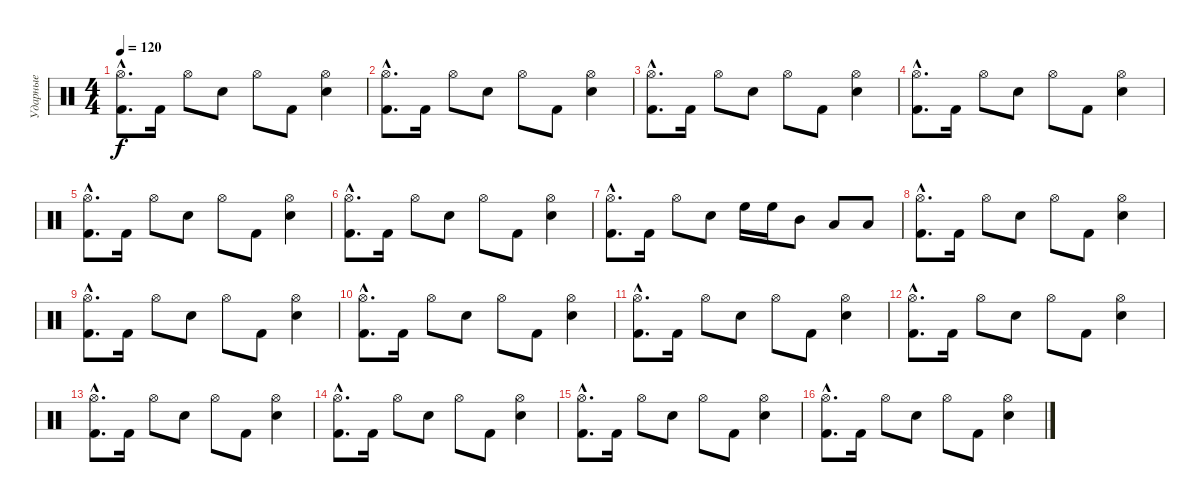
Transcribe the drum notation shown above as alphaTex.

\track ("Ударные" "Ударные") {instrument percussion}
\staff {score}
\articulation defaults
\ts (4 4)
\tempo 120
\clef neutral
\ks c
("Hi-Hat (open)"{hac} "Kick (hit) 2"{hac}).8{d dy f} "Kick (hit) 2".16 "Hi-Hat (open)".8 "Snare (hit) 2".8 "Hi-Hat (open)".8 "Kick (hit) 2".8 ("Hi-Hat (open)" "Snare (hit) 2").4 |
("Hi-Hat (open)"{hac} "Kick (hit) 2"{hac}).8{d} "Kick (hit) 2".16 "Hi-Hat (open)".8 "Snare (hit) 2".8 "Hi-Hat (open)".8 "Kick (hit) 2".8 ("Hi-Hat (open)" "Snare (hit) 2").4 |
("Hi-Hat (open)"{hac} "Kick (hit) 2"{hac}).8{d} "Kick (hit) 2".16 "Hi-Hat (open)".8 "Snare (hit) 2".8 "Hi-Hat (open)".8 "Kick (hit) 2".8 ("Hi-Hat (open)" "Snare (hit) 2").4 |
("Hi-Hat (open)"{hac} "Kick (hit) 2"{hac}).8{d} "Kick (hit) 2".16 "Hi-Hat (open)".8 "Snare (hit) 2".8 "Hi-Hat (open)".8 "Kick (hit) 2".8 ("Hi-Hat (open)" "Snare (hit) 2").4 |
("Hi-Hat (open)"{hac} "Kick (hit) 2"{hac}).8{d} "Kick (hit) 2".16 "Hi-Hat (open)".8 "Snare (hit) 2".8 "Hi-Hat (open)".8 "Kick (hit) 2".8 ("Hi-Hat (open)" "Snare (hit) 2").4 |
("Hi-Hat (open)"{hac} "Kick (hit) 2"{hac}).8{d} "Kick (hit) 2".16 "Hi-Hat (open)".8 "Snare (hit) 2".8 "Hi-Hat (open)".8 "Kick (hit) 2".8 ("Hi-Hat (open)" "Snare (hit) 2").4 |
("Hi-Hat (open)"{hac} "Kick (hit) 2"{hac}).8{d} "Kick (hit) 2".16 "Hi-Hat (open)".8 "Snare (hit) 2".8 "High Floor Tom (hit)".16 "High Floor Tom (hit)".16 "Mid Tom (hit)".8 "Low Tom (hit)".8 "Low Floor Tom (hit)".8 |
("Hi-Hat (open)"{hac} "Kick (hit) 2"{hac}).8{d} "Kick (hit) 2".16 "Hi-Hat (open)".8 "Snare (hit) 2".8 "Hi-Hat (open)".8 "Kick (hit) 2".8 ("Hi-Hat (open)" "Snare (hit) 2").4 |
("Hi-Hat (open)"{hac} "Kick (hit) 2"{hac}).8{d} "Kick (hit) 2".16 "Hi-Hat (open)".8 "Snare (hit) 2".8 "Hi-Hat (open)".8 "Kick (hit) 2".8 ("Hi-Hat (open)" "Snare (hit) 2").4 |
("Hi-Hat (open)"{hac} "Kick (hit) 2"{hac}).8{d} "Kick (hit) 2".16 "Hi-Hat (open)".8 "Snare (hit) 2".8 "Hi-Hat (open)".8 "Kick (hit) 2".8 ("Hi-Hat (open)" "Snare (hit) 2").4 |
("Hi-Hat (open)"{hac} "Kick (hit) 2"{hac}).8{d} "Kick (hit) 2".16 "Hi-Hat (open)".8 "Snare (hit) 2".8 "Hi-Hat (open)".8 "Kick (hit) 2".8 ("Hi-Hat (open)" "Snare (hit) 2").4 |
("Hi-Hat (open)"{hac} "Kick (hit) 2"{hac}).8{d} "Kick (hit) 2".16 "Hi-Hat (open)".8 "Snare (hit) 2".8 "Hi-Hat (open)".8 "Kick (hit) 2".8 ("Hi-Hat (open)" "Snare (hit) 2").4 |
("Hi-Hat (open)"{hac} "Kick (hit) 2"{hac}).8{d} "Kick (hit) 2".16 "Hi-Hat (open)".8 "Snare (hit) 2".8 "Hi-Hat (open)".8 "Kick (hit) 2".8 ("Hi-Hat (open)" "Snare (hit) 2").4 |
("Hi-Hat (open)"{hac} "Kick (hit) 2"{hac}).8{d} "Kick (hit) 2".16 "Hi-Hat (open)".8 "Snare (hit) 2".8 "Hi-Hat (open)".8 "Kick (hit) 2".8 ("Hi-Hat (open)" "Snare (hit) 2").4 |
("Hi-Hat (open)"{hac} "Kick (hit) 2"{hac}).8{d} "Kick (hit) 2".16 "Hi-Hat (open)".8 "Snare (hit) 2".8 "Hi-Hat (open)".8 "Kick (hit) 2".8 ("Hi-Hat (open)" "Snare (hit) 2").4 |
("Hi-Hat (open)"{hac} "Kick (hit) 2"{hac}).8{d} "Kick (hit) 2".16 "Hi-Hat (open)".8 "Snare (hit) 2".8 "Hi-Hat (open)".8 "Kick (hit) 2".8 ("Hi-Hat (open)" "Snare (hit) 2").4
